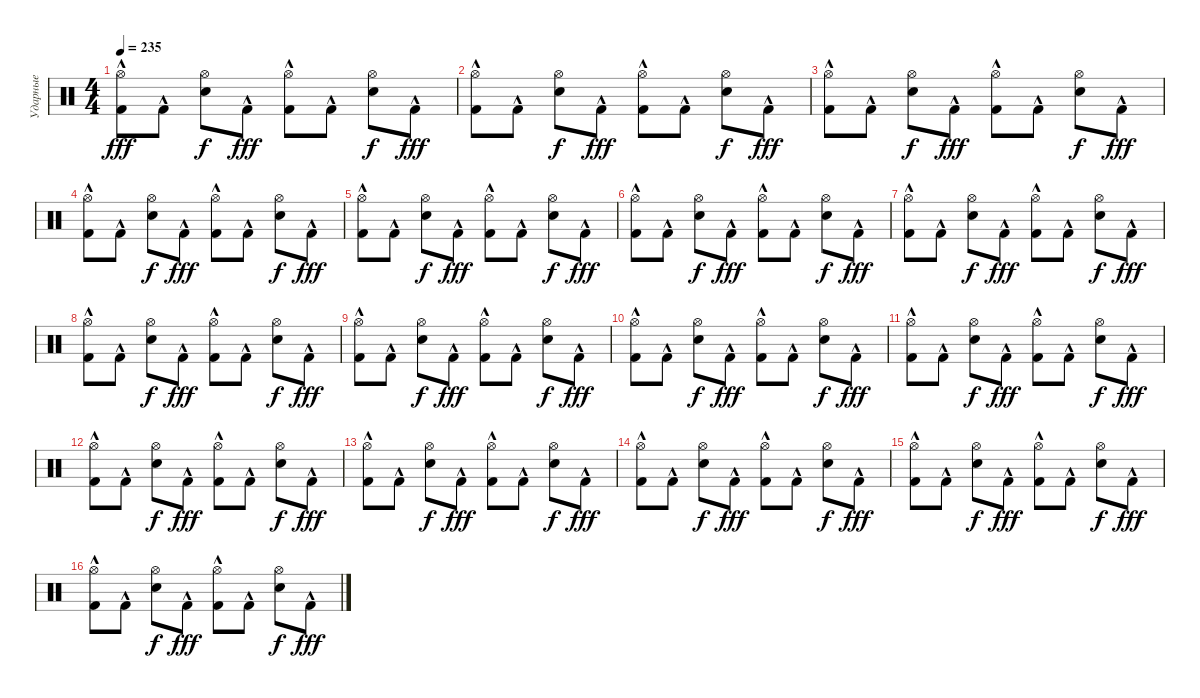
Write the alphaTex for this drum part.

\track ("Ударные" "Ударные") {instrument percussion}
\staff {score}
\articulation defaults
\ts (4 4)
\tempo 235
\clef neutral
\ks c
("Kick (hit) 2"{hac} "Hi-Hat (open)").8{dy fff} "Kick (hit) 2"{hac}.8 ("Snare (hit) 2" "Hi-Hat (open)").8{dy f} "Kick (hit) 2"{hac}.8{dy fff} ("Kick (hit) 2"{hac} "Hi-Hat (open)").8 "Kick (hit) 2"{hac}.8 ("Snare (hit) 2" "Hi-Hat (open)").8{dy f} "Kick (hit) 2"{hac}.8{dy fff} |
("Kick (hit) 2"{hac} "Hi-Hat (open)").8 "Kick (hit) 2"{hac}.8 ("Snare (hit) 2" "Hi-Hat (open)").8{dy f} "Kick (hit) 2"{hac}.8{dy fff} ("Kick (hit) 2"{hac} "Hi-Hat (open)").8 "Kick (hit) 2"{hac}.8 ("Snare (hit) 2" "Hi-Hat (open)").8{dy f} "Kick (hit) 2"{hac}.8{dy fff} |
("Kick (hit) 2"{hac} "Hi-Hat (open)").8 "Kick (hit) 2"{hac}.8 ("Snare (hit) 2" "Hi-Hat (open)").8{dy f} "Kick (hit) 2"{hac}.8{dy fff} ("Kick (hit) 2"{hac} "Hi-Hat (open)").8 "Kick (hit) 2"{hac}.8 ("Snare (hit) 2" "Hi-Hat (open)").8{dy f} "Kick (hit) 2"{hac}.8{dy fff} |
("Kick (hit) 2"{hac} "Hi-Hat (open)").8 "Kick (hit) 2"{hac}.8 ("Snare (hit) 2" "Hi-Hat (open)").8{dy f} "Kick (hit) 2"{hac}.8{dy fff} ("Kick (hit) 2"{hac} "Hi-Hat (open)").8 "Kick (hit) 2"{hac}.8 ("Snare (hit) 2" "Hi-Hat (open)").8{dy f} "Kick (hit) 2"{hac}.8{dy fff} |
("Kick (hit) 2"{hac} "Hi-Hat (open)").8 "Kick (hit) 2"{hac}.8 ("Snare (hit) 2" "Hi-Hat (open)").8{dy f} "Kick (hit) 2"{hac}.8{dy fff} ("Kick (hit) 2"{hac} "Hi-Hat (open)").8 "Kick (hit) 2"{hac}.8 ("Snare (hit) 2" "Hi-Hat (open)").8{dy f} "Kick (hit) 2"{hac}.8{dy fff} |
("Kick (hit) 2"{hac} "Hi-Hat (open)").8 "Kick (hit) 2"{hac}.8 ("Snare (hit) 2" "Hi-Hat (open)").8{dy f} "Kick (hit) 2"{hac}.8{dy fff} ("Kick (hit) 2"{hac} "Hi-Hat (open)").8 "Kick (hit) 2"{hac}.8 ("Snare (hit) 2" "Hi-Hat (open)").8{dy f} "Kick (hit) 2"{hac}.8{dy fff} |
("Kick (hit) 2"{hac} "Hi-Hat (open)").8 "Kick (hit) 2"{hac}.8 ("Snare (hit) 2" "Hi-Hat (open)").8{dy f} "Kick (hit) 2"{hac}.8{dy fff} ("Kick (hit) 2"{hac} "Hi-Hat (open)").8 "Kick (hit) 2"{hac}.8 ("Snare (hit) 2" "Hi-Hat (open)").8{dy f} "Kick (hit) 2"{hac}.8{dy fff} |
("Kick (hit) 2"{hac} "Hi-Hat (open)").8 "Kick (hit) 2"{hac}.8 ("Snare (hit) 2" "Hi-Hat (open)").8{dy f} "Kick (hit) 2"{hac}.8{dy fff} ("Kick (hit) 2"{hac} "Hi-Hat (open)").8 "Kick (hit) 2"{hac}.8 ("Snare (hit) 2" "Hi-Hat (open)").8{dy f} "Kick (hit) 2"{hac}.8{dy fff} |
("Kick (hit) 2"{hac} "Hi-Hat (open)").8 "Kick (hit) 2"{hac}.8 ("Snare (hit) 2" "Hi-Hat (open)").8{dy f} "Kick (hit) 2"{hac}.8{dy fff} ("Kick (hit) 2"{hac} "Hi-Hat (open)").8 "Kick (hit) 2"{hac}.8 ("Snare (hit) 2" "Hi-Hat (open)").8{dy f} "Kick (hit) 2"{hac}.8{dy fff} |
("Kick (hit) 2"{hac} "Hi-Hat (open)").8 "Kick (hit) 2"{hac}.8 ("Snare (hit) 2" "Hi-Hat (open)").8{dy f} "Kick (hit) 2"{hac}.8{dy fff} ("Kick (hit) 2"{hac} "Hi-Hat (open)").8 "Kick (hit) 2"{hac}.8 ("Snare (hit) 2" "Hi-Hat (open)").8{dy f} "Kick (hit) 2"{hac}.8{dy fff} |
("Kick (hit) 2"{hac} "Hi-Hat (open)").8 "Kick (hit) 2"{hac}.8 ("Snare (hit) 2" "Hi-Hat (open)").8{dy f} "Kick (hit) 2"{hac}.8{dy fff} ("Kick (hit) 2"{hac} "Hi-Hat (open)").8 "Kick (hit) 2"{hac}.8 ("Snare (hit) 2" "Hi-Hat (open)").8{dy f} "Kick (hit) 2"{hac}.8{dy fff} |
("Kick (hit) 2"{hac} "Hi-Hat (open)").8 "Kick (hit) 2"{hac}.8 ("Snare (hit) 2" "Hi-Hat (open)").8{dy f} "Kick (hit) 2"{hac}.8{dy fff} ("Kick (hit) 2"{hac} "Hi-Hat (open)").8 "Kick (hit) 2"{hac}.8 ("Snare (hit) 2" "Hi-Hat (open)").8{dy f} "Kick (hit) 2"{hac}.8{dy fff} |
("Kick (hit) 2"{hac} "Hi-Hat (open)").8 "Kick (hit) 2"{hac}.8 ("Snare (hit) 2" "Hi-Hat (open)").8{dy f} "Kick (hit) 2"{hac}.8{dy fff} ("Kick (hit) 2"{hac} "Hi-Hat (open)").8 "Kick (hit) 2"{hac}.8 ("Snare (hit) 2" "Hi-Hat (open)").8{dy f} "Kick (hit) 2"{hac}.8{dy fff} |
("Kick (hit) 2"{hac} "Hi-Hat (open)").8 "Kick (hit) 2"{hac}.8 ("Snare (hit) 2" "Hi-Hat (open)").8{dy f} "Kick (hit) 2"{hac}.8{dy fff} ("Kick (hit) 2"{hac} "Hi-Hat (open)").8 "Kick (hit) 2"{hac}.8 ("Snare (hit) 2" "Hi-Hat (open)").8{dy f} "Kick (hit) 2"{hac}.8{dy fff} |
("Kick (hit) 2"{hac} "Hi-Hat (open)").8 "Kick (hit) 2"{hac}.8 ("Snare (hit) 2" "Hi-Hat (open)").8{dy f} "Kick (hit) 2"{hac}.8{dy fff} ("Kick (hit) 2"{hac} "Hi-Hat (open)").8 "Kick (hit) 2"{hac}.8 ("Snare (hit) 2" "Hi-Hat (open)").8{dy f} "Kick (hit) 2"{hac}.8{dy fff} |
("Kick (hit) 2"{hac} "Hi-Hat (open)").8 "Kick (hit) 2"{hac}.8 ("Snare (hit) 2" "Hi-Hat (open)").8{dy f} "Kick (hit) 2"{hac}.8{dy fff} ("Kick (hit) 2"{hac} "Hi-Hat (open)").8 "Kick (hit) 2"{hac}.8 ("Snare (hit) 2" "Hi-Hat (open)").8{dy f} "Kick (hit) 2"{hac}.8{dy fff}
